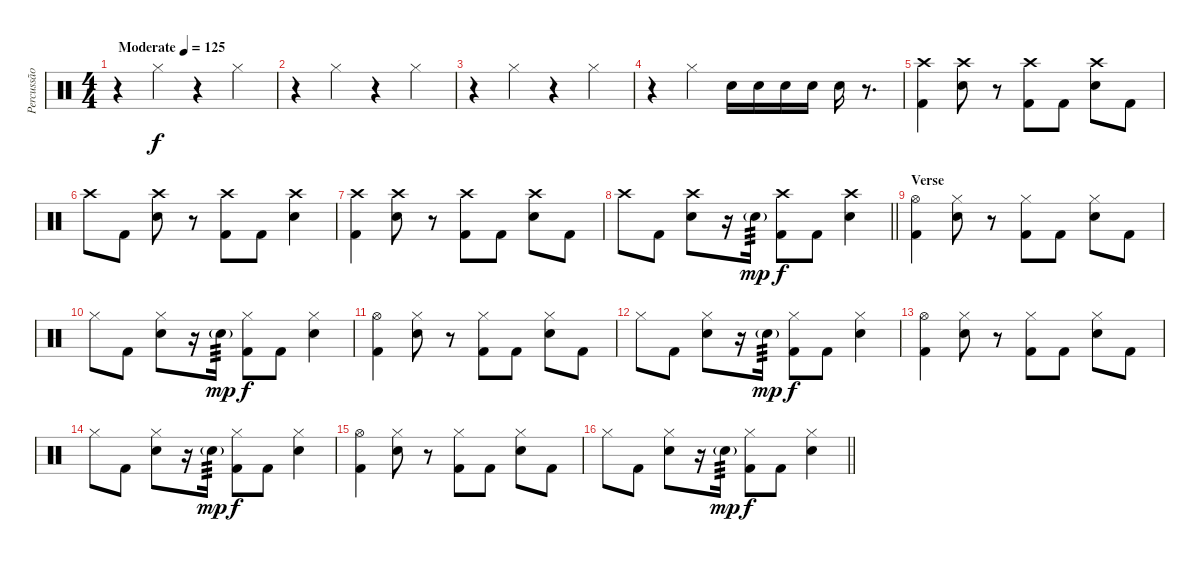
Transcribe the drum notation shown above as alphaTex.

\track ("Percussão" "Percussão") {instrument percussion}
\staff {score}
\articulation defaults
\ts (4 4)
\tempo (125 "Moderate")
\clef neutral
\ks c
r.4{dy f} "Hi-Hat (closed)".4 r.4 "Hi-Hat (closed)".4 |
r.4 "Hi-Hat (closed)".4 r.4 "Hi-Hat (closed)".4 |
r.4 "Hi-Hat (closed)".4 r.4 "Hi-Hat (closed)".4 |
r.4 "Hi-Hat (closed)".4 "Electric Snare (hit)".16 "Electric Snare (hit)".16 "Electric Snare (hit)".16 "Electric Snare (hit)".16 "Electric Snare (hit)".16 r.8{d} |
("Crash high (hit)" "Kick (hit) 2").4 ("Crash high (hit)" "Electric Snare (hit)").8 r.8 ("Crash high (hit)" "Kick (hit) 2").8 "Kick (hit) 2".8 ("Crash high (hit)" "Electric Snare (hit)").8 "Kick (hit) 2".8 |
"Crash high (hit)".8 "Kick (hit) 2".8 ("Crash high (hit)" "Electric Snare (hit)").8 r.8 ("Crash high (hit)" "Kick (hit) 2").8 "Kick (hit) 2".8 ("Crash high (hit)" "Electric Snare (hit)").4 |
("Crash high (hit)" "Kick (hit) 2").4 ("Crash high (hit)" "Electric Snare (hit)").8 r.8 ("Crash high (hit)" "Kick (hit) 2").8 "Kick (hit) 2".8 ("Crash high (hit)" "Electric Snare (hit)").8 "Kick (hit) 2".8 |
\barLineRight lightlight "Crash high (hit)".8 "Kick (hit) 2".8
("Crash high (hit)" "Electric Snare (hit)").8 r.16 "Electric Snare (hit)"{g}.16{tp 3 dy mp} ("Crash high (hit)" "Kick (hit) 2").8{dy f} "Kick (hit) 2".8 ("Crash high (hit)" "Electric Snare (hit)").4 |
\section ("" "Verse")
("Hi-Hat (open)" "Kick (hit) 2").4 ("Hi-Hat (closed)" "Electric Snare (hit)").8 r.8 ("Hi-Hat (closed)" "Kick (hit) 2").8 "Kick (hit) 2".8 ("Hi-Hat (closed)" "Electric Snare (hit)").8 "Kick (hit) 2".8 |
"Hi-Hat (closed)".8 "Kick (hit) 2".8 ("Hi-Hat (closed)" "Electric Snare (hit)").8 r.16 "Electric Snare (hit)"{g}.16{tp 3 dy mp} ("Hi-Hat (closed)" "Kick (hit) 2").8{dy f} "Kick (hit) 2".8 ("Hi-Hat (closed)" "Electric Snare (hit)").4 |
("Hi-Hat (open)" "Kick (hit) 2").4 ("Hi-Hat (closed)" "Electric Snare (hit)").8 r.8 ("Hi-Hat (closed)" "Kick (hit) 2").8 "Kick (hit) 2".8 ("Hi-Hat (closed)" "Electric Snare (hit)").8 "Kick (hit) 2".8 |
"Hi-Hat (closed)".8 "Kick (hit) 2".8 ("Hi-Hat (closed)" "Electric Snare (hit)").8 r.16 "Electric Snare (hit)"{g}.16{tp 3 dy mp} ("Hi-Hat (closed)" "Kick (hit) 2").8{dy f} "Kick (hit) 2".8 ("Hi-Hat (closed)" "Electric Snare (hit)").4 |
("Hi-Hat (open)" "Kick (hit) 2").4 ("Hi-Hat (closed)" "Electric Snare (hit)").8 r.8 ("Hi-Hat (closed)" "Kick (hit) 2").8 "Kick (hit) 2".8 ("Hi-Hat (closed)" "Electric Snare (hit)").8 "Kick (hit) 2".8 |
"Hi-Hat (closed)".8 "Kick (hit) 2".8 ("Hi-Hat (closed)" "Electric Snare (hit)").8 r.16 "Electric Snare (hit)"{g}.16{tp 3 dy mp} ("Hi-Hat (closed)" "Kick (hit) 2").8{dy f} "Kick (hit) 2".8 ("Hi-Hat (closed)" "Electric Snare (hit)").4 |
("Hi-Hat (open)" "Kick (hit) 2").4 ("Hi-Hat (closed)" "Electric Snare (hit)").8 r.8 ("Hi-Hat (closed)" "Kick (hit) 2").8 "Kick (hit) 2".8 ("Hi-Hat (closed)" "Electric Snare (hit)").8 "Kick (hit) 2".8 |
\barLineRight lightlight "Hi-Hat (closed)".8 "Kick (hit) 2".8
("Hi-Hat (closed)" "Electric Snare (hit)").8 r.16 "Electric Snare (hit)"{g}.16{tp 3 dy mp} ("Hi-Hat (closed)" "Kick (hit) 2").8{dy f} "Kick (hit) 2".8 ("Hi-Hat (closed)" "Electric Snare (hit)").4
